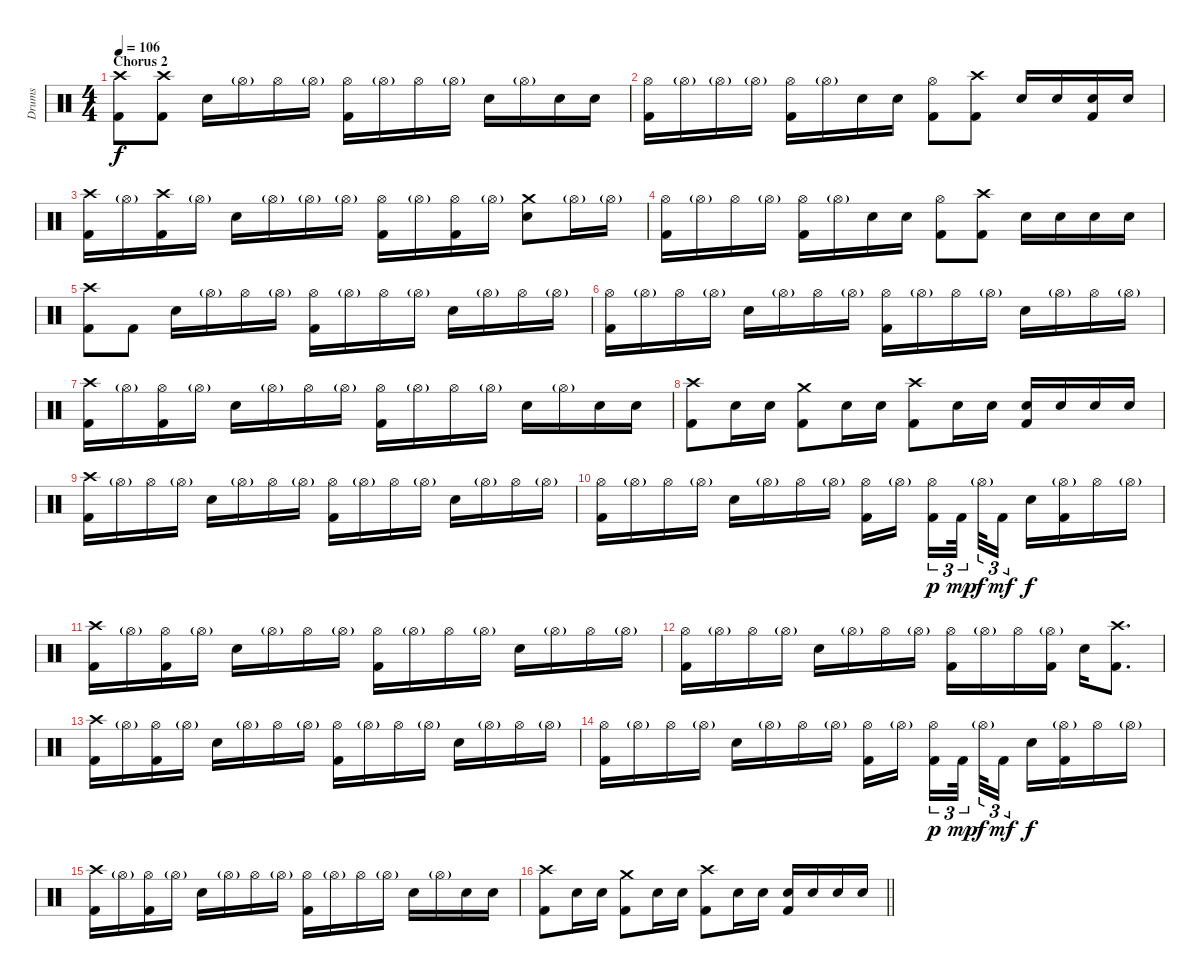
\track ("Drums" "Drums") {instrument percussion}
\staff {score}
\articulation defaults
\ts (4 4)
\section ("" "Chorus 2")
\tempo 106
\clef neutral
\ks c
("Crash high (hit)" "Kick (hit) 2").8{dy f} ("Crash high (hit)" "Kick (hit) 2").8 "Electric Snare (hit)".16 "Hi-Hat (open)"{g}.16 "Hi-Hat (open)".16 "Hi-Hat (open)"{g}.16 ("Hi-Hat (open)" "Kick (hit) 2").16 "Hi-Hat (open)"{g}.16 "Hi-Hat (open)".16 "Hi-Hat (open)"{g}.16 "Electric Snare (hit)".16 "Hi-Hat (open)"{g}.16 "Electric Snare (hit)".16 "Electric Snare (hit)".16 |
("Hi-Hat (open)" "Kick (hit) 2").16 "Hi-Hat (open)"{g}.16 "Hi-Hat (open)"{g}.16 "Hi-Hat (open)"{g}.16 ("Hi-Hat (open)" "Kick (hit) 2").16 "Hi-Hat (open)"{g}.16 "Electric Snare (hit)".16 "Electric Snare (hit)".16 ("Hi-Hat (open)" "Kick (hit) 2").8 ("Crash high (hit)" "Kick (hit) 2").8 "Electric Snare (hit)".16 "Electric Snare (hit)".16 ("Electric Snare (hit)" "Kick (hit) 2").16 "Electric Snare (hit)".16 |
("Crash high (hit)" "Kick (hit) 2").16 "Hi-Hat (open)"{g}.16 ("Crash high (hit)" "Kick (hit) 2").16 "Hi-Hat (open)"{g}.16 "Electric Snare (hit)".16 "Hi-Hat (open)"{g}.16 "Hi-Hat (open)"{g}.16 "Hi-Hat (open)"{g}.16 ("Hi-Hat (open)" "Kick (hit) 2").16 "Hi-Hat (open)"{g}.16 ("Hi-Hat (open)" "Kick (hit) 2").16 "Hi-Hat (open)"{g}.16 ("Crash medium (hit)" "Electric Snare (hit)").8 "Hi-Hat (open)"{g}.16 "Hi-Hat (open)"{g}.16 |
("Hi-Hat (open)" "Kick (hit) 2").16 "Hi-Hat (open)"{g}.16 "Hi-Hat (open)".16 "Hi-Hat (open)"{g}.16 ("Hi-Hat (open)" "Kick (hit) 2").16 "Hi-Hat (open)"{g}.16 "Electric Snare (hit)".16 "Electric Snare (hit)".16 ("Hi-Hat (open)" "Kick (hit) 2").8 ("Crash high (hit)" "Kick (hit) 2").8 "Electric Snare (hit)".16 "Electric Snare (hit)".16 "Electric Snare (hit)".16 "Electric Snare (hit)".16 |
("Crash high (hit)" "Kick (hit) 2").8 "Kick (hit) 2".8 "Electric Snare (hit)".16 "Hi-Hat (open)"{g}.16 "Hi-Hat (open)".16 "Hi-Hat (open)"{g}.16 ("Hi-Hat (open)" "Kick (hit) 2").16 "Hi-Hat (open)"{g}.16 "Hi-Hat (open)".16 "Hi-Hat (open)"{g}.16 "Electric Snare (hit)".16 "Hi-Hat (open)"{g}.16 "Hi-Hat (open)".16 "Hi-Hat (open)"{g}.16 |
("Hi-Hat (open)" "Kick (hit) 2").16 "Hi-Hat (open)"{g}.16 "Hi-Hat (open)".16 "Hi-Hat (open)"{g}.16 "Electric Snare (hit)".16 "Hi-Hat (open)"{g}.16 "Hi-Hat (open)".16 "Hi-Hat (open)"{g}.16 ("Hi-Hat (open)" "Kick (hit) 2").16 "Hi-Hat (open)"{g}.16 "Hi-Hat (open)".16 "Hi-Hat (open)"{g}.16 "Electric Snare (hit)".16 "Hi-Hat (open)"{g}.16 "Hi-Hat (open)".16 "Hi-Hat (open)"{g}.16 |
("Crash high (hit)" "Kick (hit) 2").16 "Hi-Hat (open)"{g}.16 ("Hi-Hat (open)" "Kick (hit) 2").16 "Hi-Hat (open)"{g}.16 "Electric Snare (hit)".16 "Hi-Hat (open)"{g}.16 "Hi-Hat (open)".16 "Hi-Hat (open)"{g}.16 ("Hi-Hat (open)" "Kick (hit) 2").16 "Hi-Hat (open)"{g}.16 "Hi-Hat (open)".16 "Hi-Hat (open)"{g}.16 "Electric Snare (hit)".16 "Hi-Hat (open)"{g}.16 "Electric Snare (hit)".16 "Electric Snare (hit)".16 |
("Crash high (hit)" "Kick (hit) 2").8 "Electric Snare (hit)".16 "Electric Snare (hit)".16 ("Crash medium (hit)" "Kick (hit) 2").8 "Electric Snare (hit)".16 "Electric Snare (hit)".16 ("Crash high (hit)" "Kick (hit) 2").8 "Electric Snare (hit)".16 "Electric Snare (hit)".16 ("Electric Snare (hit)" "Kick (hit) 2").16 "Electric Snare (hit)".16 "Electric Snare (hit)".16 "Electric Snare (hit)".16 |
("Crash high (hit)" "Kick (hit) 2").16 "Hi-Hat (open)"{g}.16 "Hi-Hat (open)".16 "Hi-Hat (open)"{g}.16 "Electric Snare (hit)".16 "Hi-Hat (open)"{g}.16 "Hi-Hat (open)".16 "Hi-Hat (open)"{g}.16 ("Hi-Hat (open)" "Kick (hit) 2").16 "Hi-Hat (open)"{g}.16 "Hi-Hat (open)".16 "Hi-Hat (open)"{g}.16 "Electric Snare (hit)".16 "Hi-Hat (open)"{g}.16 "Hi-Hat (open)".16 "Hi-Hat (open)"{g}.16 |
("Hi-Hat (open)" "Kick (hit) 2").16 "Hi-Hat (open)"{g}.16 "Hi-Hat (open)".16 "Hi-Hat (open)"{g}.16 "Electric Snare (hit)".16 "Hi-Hat (open)"{g}.16 "Hi-Hat (open)".16 "Hi-Hat (open)"{g}.16 ("Hi-Hat (open)" "Kick (hit) 2").16 "Hi-Hat (open)"{g}.16{beam splitsecondary} ("Hi-Hat (open)" "Kick (hit) 2").16{tu (3 2) dy p} "Kick (hit) 2".32{tu (3 2) dy mp beam splitsecondary} "Hi-Hat (open)"{g}.32{tu (3 2) dy f} "Kick (hit) 2".16{tu (3 2) dy mf} "Electric Snare (hit)".16{dy f} ("Hi-Hat (open)"{g} "Kick (hit) 2").16 "Hi-Hat (open)".16 "Hi-Hat (open)"{g}.16 |
("Crash high (hit)" "Kick (hit) 2").16 "Hi-Hat (open)"{g}.16 ("Hi-Hat (open)" "Kick (hit) 2").16 "Hi-Hat (open)"{g}.16 "Electric Snare (hit)".16 "Hi-Hat (open)"{g}.16 "Hi-Hat (open)".16 "Hi-Hat (open)"{g}.16 ("Hi-Hat (open)" "Kick (hit) 2").16 "Hi-Hat (open)"{g}.16 "Hi-Hat (open)".16 "Hi-Hat (open)"{g}.16 "Electric Snare (hit)".16 "Hi-Hat (open)"{g}.16 "Hi-Hat (open)".16 "Hi-Hat (open)"{g}.16 |
("Hi-Hat (open)" "Kick (hit) 2").16 "Hi-Hat (open)"{g}.16 "Hi-Hat (open)".16 "Hi-Hat (open)"{g}.16 "Electric Snare (hit)".16 "Hi-Hat (open)"{g}.16 "Hi-Hat (open)".16 "Hi-Hat (open)"{g}.16 ("Hi-Hat (open)" "Kick (hit) 2").16 "Hi-Hat (open)"{g}.16 "Hi-Hat (open)".16 ("Hi-Hat (open)"{g} "Kick (hit) 2").16 "Electric Snare (hit)".16 ("Crash high (hit)" "Kick (hit) 2").8{d} |
("Crash high (hit)" "Kick (hit) 2").16 "Hi-Hat (open)"{g}.16 ("Hi-Hat (open)" "Kick (hit) 2").16 "Hi-Hat (open)"{g}.16 "Electric Snare (hit)".16 "Hi-Hat (open)"{g}.16 "Hi-Hat (open)".16 "Hi-Hat (open)"{g}.16 ("Hi-Hat (open)" "Kick (hit) 2").16 "Hi-Hat (open)"{g}.16 "Hi-Hat (open)".16 "Hi-Hat (open)"{g}.16 "Electric Snare (hit)".16 "Hi-Hat (open)"{g}.16 "Hi-Hat (open)".16 "Hi-Hat (open)"{g}.16 |
("Hi-Hat (open)" "Kick (hit) 2").16 "Hi-Hat (open)"{g}.16 "Hi-Hat (open)".16 "Hi-Hat (open)"{g}.16 "Electric Snare (hit)".16 "Hi-Hat (open)"{g}.16 "Hi-Hat (open)".16 "Hi-Hat (open)"{g}.16 ("Hi-Hat (open)" "Kick (hit) 2").16 "Hi-Hat (open)"{g}.16{beam splitsecondary} ("Hi-Hat (open)" "Kick (hit) 2").16{tu (3 2) dy p} "Kick (hit) 2".32{tu (3 2) dy mp beam splitsecondary} "Hi-Hat (open)"{g}.32{tu (3 2) dy f} "Kick (hit) 2".16{tu (3 2) dy mf} "Electric Snare (hit)".16{dy f} ("Hi-Hat (open)"{g} "Kick (hit) 2").16 "Hi-Hat (open)".16 "Hi-Hat (open)"{g}.16 |
("Crash high (hit)" "Kick (hit) 2").16 "Hi-Hat (open)"{g}.16 ("Hi-Hat (open)" "Kick (hit) 2").16 "Hi-Hat (open)"{g}.16 "Electric Snare (hit)".16 "Hi-Hat (open)"{g}.16 "Hi-Hat (open)".16 "Hi-Hat (open)"{g}.16 ("Hi-Hat (open)" "Kick (hit) 2").16 "Hi-Hat (open)"{g}.16 "Hi-Hat (open)".16 "Hi-Hat (open)"{g}.16 "Electric Snare (hit)".16 "Hi-Hat (open)"{g}.16 "Electric Snare (hit)".16 "Electric Snare (hit)".16 |
\barLineRight lightlight
("Crash high (hit)" "Kick (hit) 2").8 "Electric Snare (hit)".16 "Electric Snare (hit)".16 ("Crash medium (hit)" "Kick (hit) 2").8 "Electric Snare (hit)".16 "Electric Snare (hit)".16 ("Crash high (hit)" "Kick (hit) 2").8 "Electric Snare (hit)".16 "Electric Snare (hit)".16 ("Electric Snare (hit)" "Kick (hit) 2").16 "Electric Snare (hit)".16 "Electric Snare (hit)".16 "Electric Snare (hit)".16
